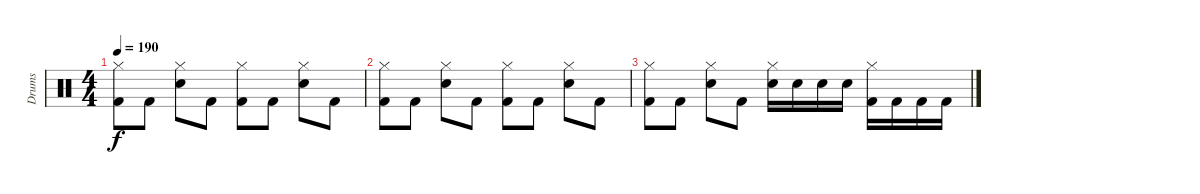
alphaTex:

\track ("Drums" "Drums") {instrument percussion}
\staff {score}
\articulation defaults
\ts (4 4)
\tempo 190
\clef neutral
\ks c
("Kick (hit) 2" "Hi-Hat (closed)").8{dy f} "Kick (hit) 2".8 ("Snare (hit) 2" "Hi-Hat (closed)").8 "Kick (hit) 2".8 ("Kick (hit) 2" "Hi-Hat (closed)").8 "Kick (hit) 2".8 ("Snare (hit) 2" "Hi-Hat (closed)").8 "Kick (hit) 2".8 |
("Kick (hit) 2" "Hi-Hat (closed)").8 "Kick (hit) 2".8 ("Snare (hit) 2" "Hi-Hat (closed)").8 "Kick (hit) 2".8 ("Kick (hit) 2" "Hi-Hat (closed)").8 "Kick (hit) 2".8 ("Snare (hit) 2" "Hi-Hat (closed)").8 "Kick (hit) 2".8 |
("Kick (hit) 2" "Hi-Hat (closed)").8 "Kick (hit) 2".8 ("Snare (hit) 2" "Hi-Hat (closed)").8 "Kick (hit) 2".8 ("Snare (hit) 2" "Hi-Hat (closed)").16 "Snare (hit) 2".16 "Snare (hit) 2".16 "Snare (hit) 2".16 ("Kick (hit) 2" "Hi-Hat (closed)").16 "Kick (hit) 2".16 "Kick (hit) 2".16 "Kick (hit) 2".16
